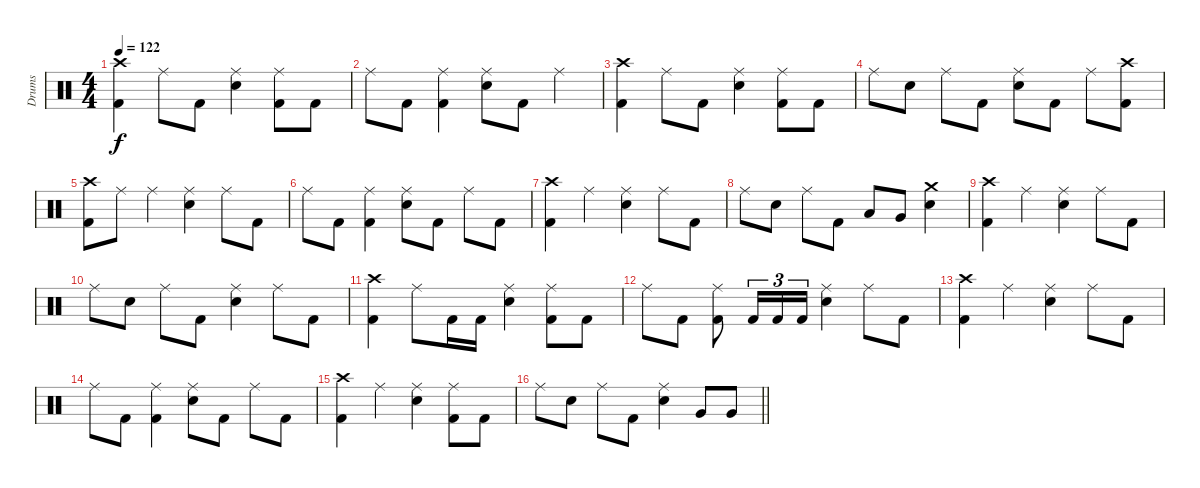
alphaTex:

\track ("Drums" "Drums") {instrument percussion}
\staff {score}
\articulation defaults
\ts (4 4)
\tempo 122
\clef neutral
\ks c
("Crash high (hit)" "Kick (hit) 2").4{dy f} "Ride (middle)".8 "Kick (hit) 2".8 ("Ride (middle)" "Electric Snare (hit)").4 ("Ride (middle)" "Kick (hit) 2").8 "Kick (hit) 2".8 |
"Ride (middle)".8 "Kick (hit) 2".8 ("Ride (middle)" "Kick (hit) 2").4 ("Ride (middle)" "Electric Snare (hit)").8 "Kick (hit) 2".8 "Ride (middle)".4 |
("Crash high (hit)" "Kick (hit) 2").4 "Ride (middle)".8 "Kick (hit) 2".8 ("Ride (middle)" "Electric Snare (hit)").4 ("Ride (middle)" "Kick (hit) 2").8 "Kick (hit) 2".8 |
"Ride (middle)".8 "Electric Snare (hit)".8 "Ride (middle)".8 "Kick (hit) 2".8 ("Ride (middle)" "Electric Snare (hit)").8 "Kick (hit) 2".8 "Ride (middle)".8 ("Crash high (hit)" "Kick (hit) 2").8 |
("Crash high (hit)" "Kick (hit) 2").8 "Ride (middle)".8 "Ride (middle)".4 ("Ride (middle)" "Electric Snare (hit)").4 "Ride (middle)".8 "Kick (hit) 2".8 |
"Ride (middle)".8 "Kick (hit) 2".8 ("Ride (middle)" "Kick (hit) 2").4 ("Ride (middle)" "Electric Snare (hit)").8 "Kick (hit) 2".8 "Ride (middle)".8 "Kick (hit) 2".8 |
("Crash high (hit)" "Kick (hit) 2").4 "Ride (middle)".4 ("Ride (middle)" "Electric Snare (hit)").4 "Ride (middle)".8 "Kick (hit) 2".8 |
"Ride (middle)".8 "Electric Snare (hit)".8 "Ride (middle)".8 "Kick (hit) 2".8 "Low Tom (hit)".8 "Very Low Tom (hit)".8 ("Crash medium (hit)" "Electric Snare (hit)").4 |
("Crash high (hit)" "Kick (hit) 2").4 "Ride (middle)".4 ("Ride (middle)" "Electric Snare (hit)").4 "Ride (middle)".8 "Kick (hit) 2".8 |
"Ride (middle)".8 "Electric Snare (hit)".8 "Ride (middle)".8 "Kick (hit) 2".8 ("Ride (middle)" "Electric Snare (hit)").4 "Ride (middle)".8 "Kick (hit) 2".8 |
("Crash high (hit)" "Kick (hit) 2").4 "Ride (middle)".8 "Kick (hit) 2".16 "Kick (hit) 2".16 ("Ride (middle)" "Electric Snare (hit)").4 ("Ride (middle)" "Kick (hit) 2").8 "Kick (hit) 2".8 |
"Ride (middle)".8 "Kick (hit) 2".8 ("Ride (middle)" "Kick (hit) 2").8 "Kick (hit) 2".16{tu (3 2)} "Kick (hit) 2".16{tu (3 2)} "Kick (hit) 2".16{tu (3 2)} ("Ride (middle)" "Electric Snare (hit)").4 "Ride (middle)".8 "Kick (hit) 2".8 |
("Crash high (hit)" "Kick (hit) 2").4 "Ride (middle)".4 ("Ride (middle)" "Electric Snare (hit)").4 "Ride (middle)".8 "Kick (hit) 2".8 |
"Ride (middle)".8 "Kick (hit) 2".8 ("Ride (middle)" "Kick (hit) 2").4 ("Ride (middle)" "Electric Snare (hit)").8 "Kick (hit) 2".8 "Ride (middle)".8 "Kick (hit) 2".8 |
("Crash high (hit)" "Kick (hit) 2").4 "Ride (middle)".4 ("Ride (middle)" "Electric Snare (hit)").4 ("Ride (middle)" "Kick (hit) 2").8 "Kick (hit) 2".8 |
\barLineRight lightlight "Ride (middle)".8 "Electric Snare (hit)".8 "Ride (middle)".8 "Kick (hit) 2".8
("Ride (middle)" "Electric Snare (hit)").4 "Very Low Tom (hit)".8 "Very Low Tom (hit)".8
